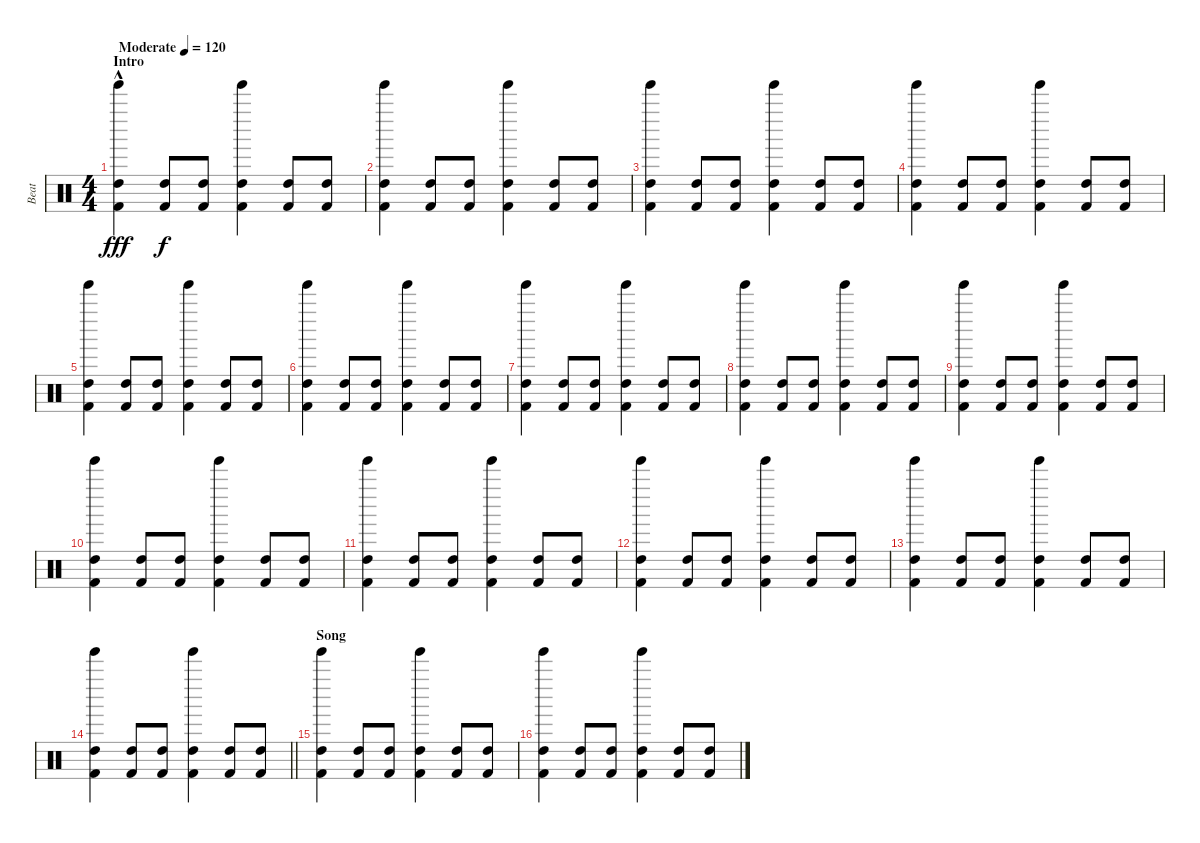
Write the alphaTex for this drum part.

\track ("Beat" "Beat") {instrument percussion}
\staff {score}
\articulation defaults
\ts (4 4)
\section ("" "Intro")
\tempo (120 "Moderate")
\clef neutral
\ks c
("High Tom (hit)"{hac} "Kick (hit) 2"{hac} "Tinkle Bell (hit)"{hac}).4{dy fff} ("High Tom (hit)" "Kick (hit) 2").8{dy f volume 11} ("High Tom (hit)" "Kick (hit) 2").8 ("High Tom (hit)" "Kick (hit) 2" "Tinkle Bell (hit)").4 ("High Tom (hit)" "Kick (hit) 2").8 ("High Tom (hit)" "Kick (hit) 2").8 |
("High Tom (hit)" "Kick (hit) 2" "Tinkle Bell (hit)").4 ("High Tom (hit)" "Kick (hit) 2").8 ("High Tom (hit)" "Kick (hit) 2").8 ("High Tom (hit)" "Kick (hit) 2" "Tinkle Bell (hit)").4 ("High Tom (hit)" "Kick (hit) 2").8 ("High Tom (hit)" "Kick (hit) 2").8 |
("High Tom (hit)" "Kick (hit) 2" "Tinkle Bell (hit)").4 ("High Tom (hit)" "Kick (hit) 2").8 ("High Tom (hit)" "Kick (hit) 2").8 ("High Tom (hit)" "Kick (hit) 2" "Tinkle Bell (hit)").4 ("High Tom (hit)" "Kick (hit) 2").8 ("High Tom (hit)" "Kick (hit) 2").8 |
("High Tom (hit)" "Kick (hit) 2" "Tinkle Bell (hit)").4 ("High Tom (hit)" "Kick (hit) 2").8 ("High Tom (hit)" "Kick (hit) 2").8 ("High Tom (hit)" "Kick (hit) 2" "Tinkle Bell (hit)").4 ("High Tom (hit)" "Kick (hit) 2").8 ("High Tom (hit)" "Kick (hit) 2").8 |
("High Tom (hit)" "Kick (hit) 2" "Tinkle Bell (hit)").4 ("High Tom (hit)" "Kick (hit) 2").8 ("High Tom (hit)" "Kick (hit) 2").8 ("High Tom (hit)" "Kick (hit) 2" "Tinkle Bell (hit)").4 ("High Tom (hit)" "Kick (hit) 2").8 ("High Tom (hit)" "Kick (hit) 2").8 |
("High Tom (hit)" "Kick (hit) 2" "Tinkle Bell (hit)").4 ("High Tom (hit)" "Kick (hit) 2").8 ("High Tom (hit)" "Kick (hit) 2").8 ("High Tom (hit)" "Kick (hit) 2" "Tinkle Bell (hit)").4 ("High Tom (hit)" "Kick (hit) 2").8 ("High Tom (hit)" "Kick (hit) 2").8 |
("High Tom (hit)" "Kick (hit) 2" "Tinkle Bell (hit)").4 ("High Tom (hit)" "Kick (hit) 2").8 ("High Tom (hit)" "Kick (hit) 2").8 ("High Tom (hit)" "Kick (hit) 2" "Tinkle Bell (hit)").4 ("High Tom (hit)" "Kick (hit) 2").8 ("High Tom (hit)" "Kick (hit) 2").8 |
("High Tom (hit)" "Kick (hit) 2" "Tinkle Bell (hit)").4 ("High Tom (hit)" "Kick (hit) 2").8 ("High Tom (hit)" "Kick (hit) 2").8 ("High Tom (hit)" "Kick (hit) 2" "Tinkle Bell (hit)").4 ("High Tom (hit)" "Kick (hit) 2").8 ("High Tom (hit)" "Kick (hit) 2").8 |
("High Tom (hit)" "Kick (hit) 2" "Tinkle Bell (hit)").4 ("High Tom (hit)" "Kick (hit) 2").8 ("High Tom (hit)" "Kick (hit) 2").8 ("High Tom (hit)" "Kick (hit) 2" "Tinkle Bell (hit)").4 ("High Tom (hit)" "Kick (hit) 2").8 ("High Tom (hit)" "Kick (hit) 2").8 |
("High Tom (hit)" "Kick (hit) 2" "Tinkle Bell (hit)").4 ("High Tom (hit)" "Kick (hit) 2").8 ("High Tom (hit)" "Kick (hit) 2").8 ("High Tom (hit)" "Kick (hit) 2" "Tinkle Bell (hit)").4 ("High Tom (hit)" "Kick (hit) 2").8 ("High Tom (hit)" "Kick (hit) 2").8 |
("High Tom (hit)" "Kick (hit) 2" "Tinkle Bell (hit)").4 ("High Tom (hit)" "Kick (hit) 2").8 ("High Tom (hit)" "Kick (hit) 2").8 ("High Tom (hit)" "Kick (hit) 2" "Tinkle Bell (hit)").4 ("High Tom (hit)" "Kick (hit) 2").8 ("High Tom (hit)" "Kick (hit) 2").8 |
("High Tom (hit)" "Kick (hit) 2" "Tinkle Bell (hit)").4 ("High Tom (hit)" "Kick (hit) 2").8 ("High Tom (hit)" "Kick (hit) 2").8 ("High Tom (hit)" "Kick (hit) 2" "Tinkle Bell (hit)").4 ("High Tom (hit)" "Kick (hit) 2").8 ("High Tom (hit)" "Kick (hit) 2").8 |
("High Tom (hit)" "Kick (hit) 2" "Tinkle Bell (hit)").4 ("High Tom (hit)" "Kick (hit) 2").8 ("High Tom (hit)" "Kick (hit) 2").8 ("High Tom (hit)" "Kick (hit) 2" "Tinkle Bell (hit)").4 ("High Tom (hit)" "Kick (hit) 2").8 ("High Tom (hit)" "Kick (hit) 2").8 |
\barLineRight lightlight
("High Tom (hit)" "Kick (hit) 2" "Tinkle Bell (hit)").4 ("High Tom (hit)" "Kick (hit) 2").8 ("High Tom (hit)" "Kick (hit) 2").8 ("High Tom (hit)" "Kick (hit) 2" "Tinkle Bell (hit)").4 ("High Tom (hit)" "Kick (hit) 2").8 ("High Tom (hit)" "Kick (hit) 2").8 |
\section ("" "Song")
("High Tom (hit)" "Kick (hit) 2" "Tinkle Bell (hit)").4 ("High Tom (hit)" "Kick (hit) 2").8 ("High Tom (hit)" "Kick (hit) 2").8 ("High Tom (hit)" "Kick (hit) 2" "Tinkle Bell (hit)").4 ("High Tom (hit)" "Kick (hit) 2").8 ("High Tom (hit)" "Kick (hit) 2").8 |
("High Tom (hit)" "Kick (hit) 2" "Tinkle Bell (hit)").4 ("High Tom (hit)" "Kick (hit) 2").8 ("High Tom (hit)" "Kick (hit) 2").8 ("High Tom (hit)" "Kick (hit) 2" "Tinkle Bell (hit)").4 ("High Tom (hit)" "Kick (hit) 2").8 ("High Tom (hit)" "Kick (hit) 2").8
